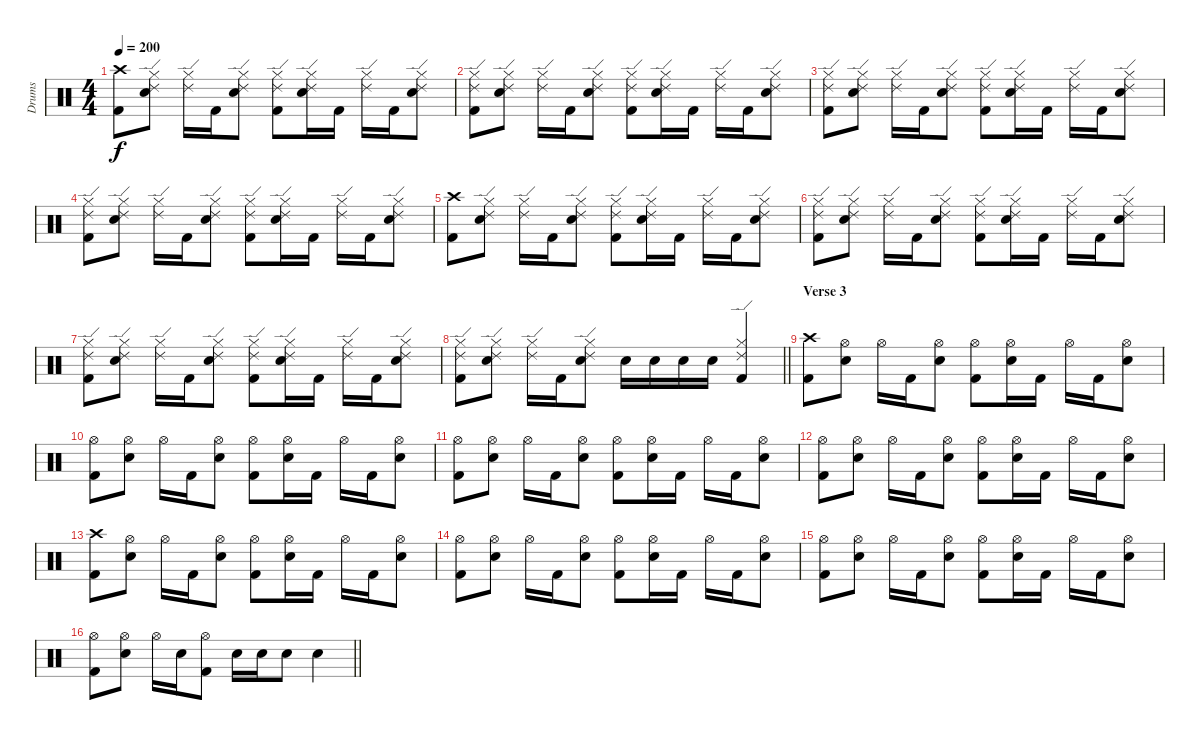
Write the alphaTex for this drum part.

\track ("Drums" "Drums") {instrument percussion}
\staff {score}
\articulation defaults
\ts (4 4)
\tempo 200
\clef neutral
\ks c
("Crash high (hit)" "Kick (hit) 2").8{dy f} ("Hi-Hat (closed)" "Ride (edge) 2" "Electric Snare (hit)").8 ("Hi-Hat (closed)" "Ride (edge) 2").16 "Kick (hit) 2".16 ("Hi-Hat (closed)" "Ride (edge) 2" "Electric Snare (hit)").8 ("Hi-Hat (closed)" "Ride (edge) 2" "Kick (hit) 2").8 ("Hi-Hat (closed)" "Ride (edge) 2" "Electric Snare (hit)").16 "Kick (hit) 2".16 ("Hi-Hat (closed)" "Ride (edge) 2").16 "Kick (hit) 2".16 ("Hi-Hat (closed)" "Ride (edge) 2" "Electric Snare (hit)").8 |
("Hi-Hat (closed)" "Ride (edge) 2" "Kick (hit) 2").8 ("Hi-Hat (closed)" "Ride (edge) 2" "Electric Snare (hit)").8 ("Hi-Hat (closed)" "Ride (edge) 2").16 "Kick (hit) 2".16 ("Hi-Hat (closed)" "Ride (edge) 2" "Electric Snare (hit)").8 ("Hi-Hat (closed)" "Ride (edge) 2" "Kick (hit) 2").8 ("Hi-Hat (closed)" "Ride (edge) 2" "Electric Snare (hit)").16 "Kick (hit) 2".16 ("Hi-Hat (closed)" "Ride (edge) 2").16 "Kick (hit) 2".16 ("Hi-Hat (closed)" "Ride (edge) 2" "Electric Snare (hit)").8 |
("Hi-Hat (closed)" "Ride (edge) 2" "Kick (hit) 2").8 ("Hi-Hat (closed)" "Ride (edge) 2" "Electric Snare (hit)").8 ("Hi-Hat (closed)" "Ride (edge) 2").16 "Kick (hit) 2".16 ("Hi-Hat (closed)" "Ride (edge) 2" "Electric Snare (hit)").8 ("Hi-Hat (closed)" "Ride (edge) 2" "Kick (hit) 2").8 ("Hi-Hat (closed)" "Ride (edge) 2" "Electric Snare (hit)").16 "Kick (hit) 2".16 ("Hi-Hat (closed)" "Ride (edge) 2").16 "Kick (hit) 2".16 ("Hi-Hat (closed)" "Ride (edge) 2" "Electric Snare (hit)").8 |
("Hi-Hat (closed)" "Ride (edge) 2" "Kick (hit) 2").8 ("Hi-Hat (closed)" "Ride (edge) 2" "Electric Snare (hit)").8 ("Hi-Hat (closed)" "Ride (edge) 2").16 "Kick (hit) 2".16 ("Hi-Hat (closed)" "Ride (edge) 2" "Electric Snare (hit)").8 ("Hi-Hat (closed)" "Ride (edge) 2" "Kick (hit) 2").8 ("Hi-Hat (closed)" "Ride (edge) 2" "Electric Snare (hit)").16 "Kick (hit) 2".16 ("Hi-Hat (closed)" "Ride (edge) 2").16 "Kick (hit) 2".16 ("Hi-Hat (closed)" "Ride (edge) 2" "Electric Snare (hit)").8 |
("Crash high (hit)" "Kick (hit) 2").8 ("Hi-Hat (closed)" "Ride (edge) 2" "Electric Snare (hit)").8 ("Hi-Hat (closed)" "Ride (edge) 2").16 "Kick (hit) 2".16 ("Hi-Hat (closed)" "Ride (edge) 2" "Electric Snare (hit)").8 ("Hi-Hat (closed)" "Ride (edge) 2" "Kick (hit) 2").8 ("Hi-Hat (closed)" "Ride (edge) 2" "Electric Snare (hit)").16 "Kick (hit) 2".16 ("Hi-Hat (closed)" "Ride (edge) 2").16 "Kick (hit) 2".16 ("Hi-Hat (closed)" "Ride (edge) 2" "Electric Snare (hit)").8 |
("Hi-Hat (closed)" "Ride (edge) 2" "Kick (hit) 2").8 ("Hi-Hat (closed)" "Ride (edge) 2" "Electric Snare (hit)").8 ("Hi-Hat (closed)" "Ride (edge) 2").16 "Kick (hit) 2".16 ("Hi-Hat (closed)" "Ride (edge) 2" "Electric Snare (hit)").8 ("Hi-Hat (closed)" "Ride (edge) 2" "Kick (hit) 2").8 ("Hi-Hat (closed)" "Ride (edge) 2" "Electric Snare (hit)").16 "Kick (hit) 2".16 ("Hi-Hat (closed)" "Ride (edge) 2").16 "Kick (hit) 2".16 ("Hi-Hat (closed)" "Ride (edge) 2" "Electric Snare (hit)").8 |
("Hi-Hat (closed)" "Ride (edge) 2" "Kick (hit) 2").8 ("Hi-Hat (closed)" "Ride (edge) 2" "Electric Snare (hit)").8 ("Hi-Hat (closed)" "Ride (edge) 2").16 "Kick (hit) 2".16 ("Hi-Hat (closed)" "Ride (edge) 2" "Electric Snare (hit)").8 ("Hi-Hat (closed)" "Ride (edge) 2" "Kick (hit) 2").8 ("Hi-Hat (closed)" "Ride (edge) 2" "Electric Snare (hit)").16 "Kick (hit) 2".16 ("Hi-Hat (closed)" "Ride (edge) 2").16 "Kick (hit) 2".16 ("Hi-Hat (closed)" "Ride (edge) 2" "Electric Snare (hit)").8 |
\barLineRight lightlight
("Hi-Hat (closed)" "Ride (edge) 2" "Kick (hit) 2").8 ("Hi-Hat (closed)" "Ride (edge) 2" "Electric Snare (hit)").8 ("Hi-Hat (closed)" "Ride (edge) 2").16 "Kick (hit) 2".16 ("Hi-Hat (closed)" "Ride (edge) 2" "Electric Snare (hit)").8 "Electric Snare (hit)".16 "Electric Snare (hit)".16 "Electric Snare (hit)".16 "Electric Snare (hit)".16 ("Hi-Hat (closed)" "Ride (edge) 2" "Kick (hit) 2").4 |
\section ("" "Verse 3")
("Crash high (hit)" "Kick (hit) 2").8 ("Hi-Hat (open)" "Electric Snare (hit)").8 "Hi-Hat (open)".16 "Kick (hit) 2".16 ("Hi-Hat (open)" "Electric Snare (hit)").8 ("Hi-Hat (open)" "Kick (hit) 2").8 ("Hi-Hat (open)" "Electric Snare (hit)").16 "Kick (hit) 2".16 "Hi-Hat (open)".16 "Kick (hit) 2".16 ("Hi-Hat (open)" "Electric Snare (hit)").8 |
("Hi-Hat (open)" "Kick (hit) 2").8 ("Hi-Hat (open)" "Electric Snare (hit)").8 "Hi-Hat (open)".16 "Kick (hit) 2".16 ("Hi-Hat (open)" "Electric Snare (hit)").8 ("Hi-Hat (open)" "Kick (hit) 2").8 ("Hi-Hat (open)" "Electric Snare (hit)").16 "Kick (hit) 2".16 "Hi-Hat (open)".16 "Kick (hit) 2".16 ("Hi-Hat (open)" "Electric Snare (hit)").8 |
("Hi-Hat (open)" "Kick (hit) 2").8 ("Hi-Hat (open)" "Electric Snare (hit)").8 "Hi-Hat (open)".16 "Kick (hit) 2".16 ("Hi-Hat (open)" "Electric Snare (hit)").8 ("Hi-Hat (open)" "Kick (hit) 2").8 ("Hi-Hat (open)" "Electric Snare (hit)").16 "Kick (hit) 2".16 "Hi-Hat (open)".16 "Kick (hit) 2".16 ("Hi-Hat (open)" "Electric Snare (hit)").8 |
("Hi-Hat (open)" "Kick (hit) 2").8 ("Hi-Hat (open)" "Electric Snare (hit)").8 "Hi-Hat (open)".16 "Kick (hit) 2".16 ("Hi-Hat (open)" "Electric Snare (hit)").8 ("Hi-Hat (open)" "Kick (hit) 2").8 ("Hi-Hat (open)" "Electric Snare (hit)").16 "Kick (hit) 2".16 "Hi-Hat (open)".16 "Kick (hit) 2".16 ("Hi-Hat (open)" "Electric Snare (hit)").8 |
("Crash high (hit)" "Kick (hit) 2").8 ("Hi-Hat (open)" "Electric Snare (hit)").8 "Hi-Hat (open)".16 "Kick (hit) 2".16 ("Hi-Hat (open)" "Electric Snare (hit)").8 ("Hi-Hat (open)" "Kick (hit) 2").8 ("Hi-Hat (open)" "Electric Snare (hit)").16 "Kick (hit) 2".16 "Hi-Hat (open)".16 "Kick (hit) 2".16 ("Hi-Hat (open)" "Electric Snare (hit)").8 |
("Hi-Hat (open)" "Kick (hit) 2").8 ("Hi-Hat (open)" "Electric Snare (hit)").8 "Hi-Hat (open)".16 "Kick (hit) 2".16 ("Hi-Hat (open)" "Electric Snare (hit)").8 ("Hi-Hat (open)" "Kick (hit) 2").8 ("Hi-Hat (open)" "Electric Snare (hit)").16 "Kick (hit) 2".16 "Hi-Hat (open)".16 "Kick (hit) 2".16 ("Hi-Hat (open)" "Electric Snare (hit)").8 |
("Hi-Hat (open)" "Kick (hit) 2").8 ("Hi-Hat (open)" "Electric Snare (hit)").8 "Hi-Hat (open)".16 "Kick (hit) 2".16 ("Hi-Hat (open)" "Electric Snare (hit)").8 ("Hi-Hat (open)" "Kick (hit) 2").8 ("Hi-Hat (open)" "Electric Snare (hit)").16 "Kick (hit) 2".16 "Hi-Hat (open)".16 "Kick (hit) 2".16 ("Hi-Hat (open)" "Electric Snare (hit)").8 |
\barLineRight lightlight
("Hi-Hat (open)" "Kick (hit) 2").8 ("Hi-Hat (open)" "Electric Snare (hit)").8 "Hi-Hat (open)".16 "Electric Snare (hit)".16 ("Hi-Hat (open)" "Kick (hit) 2").8 "Electric Snare (hit)".16 "Electric Snare (hit)".16 "Electric Snare (hit)".8 "Electric Snare (hit)".4
